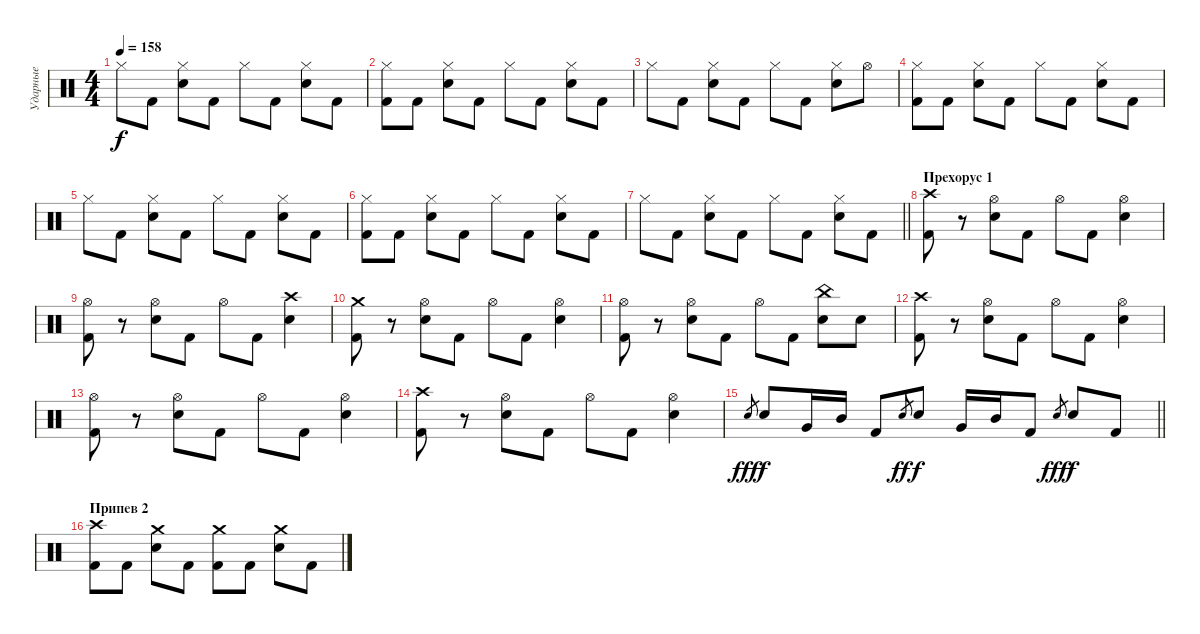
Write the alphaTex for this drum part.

\track ("Ударные" "Ударные") {instrument percussion}
\staff {score}
\articulation defaults
\ts (4 4)
\tempo 158
\clef neutral
\ks c "Hi-Hat (closed)".8{dy f} "Kick (hit) 2".8
("Hi-Hat (closed)" "Electric Snare (hit)").8 "Kick (hit) 2".8 "Hi-Hat (closed)".8 "Kick (hit) 2".8 ("Hi-Hat (closed)" "Electric Snare (hit)").8 "Kick (hit) 2".8 |
("Hi-Hat (closed)" "Kick (hit) 2").8 "Kick (hit) 2".8 ("Hi-Hat (closed)" "Electric Snare (hit)").8 "Kick (hit) 2".8 "Hi-Hat (closed)".8 "Kick (hit) 2".8 ("Hi-Hat (closed)" "Electric Snare (hit)").8 "Kick (hit) 2".8 |
"Hi-Hat (closed)".8 "Kick (hit) 2".8 ("Hi-Hat (closed)" "Electric Snare (hit)").8 "Kick (hit) 2".8 "Hi-Hat (closed)".8 "Kick (hit) 2".8 ("Hi-Hat (closed)" "Electric Snare (hit)").8 "Hi-Hat (open)".8 |
("Hi-Hat (closed)" "Kick (hit) 2").8 "Kick (hit) 2".8 ("Hi-Hat (closed)" "Electric Snare (hit)").8 "Kick (hit) 2".8 "Hi-Hat (closed)".8 "Kick (hit) 2".8 ("Hi-Hat (closed)" "Electric Snare (hit)").8 "Kick (hit) 2".8 |
"Hi-Hat (closed)".8 "Kick (hit) 2".8 ("Hi-Hat (closed)" "Electric Snare (hit)").8 "Kick (hit) 2".8 "Hi-Hat (closed)".8 "Kick (hit) 2".8 ("Hi-Hat (closed)" "Electric Snare (hit)").8 "Kick (hit) 2".8 |
("Hi-Hat (closed)" "Kick (hit) 2").8 "Kick (hit) 2".8 ("Hi-Hat (closed)" "Electric Snare (hit)").8 "Kick (hit) 2".8 "Hi-Hat (closed)".8 "Kick (hit) 2".8 ("Hi-Hat (closed)" "Electric Snare (hit)").8 "Kick (hit) 2".8 |
\barLineRight lightlight "Hi-Hat (closed)".8 "Kick (hit) 2".8
("Hi-Hat (closed)" "Electric Snare (hit)").8 "Kick (hit) 2".8 "Hi-Hat (closed)".8 "Kick (hit) 2".8 ("Hi-Hat (closed)" "Electric Snare (hit)").8 "Kick (hit) 2".8 |
\section ("" "Прехорус 1")
("Crash high (hit)" "Kick (hit) 2").8 r.8 ("Hi-Hat (open)" "Electric Snare (hit)").8 "Kick (hit) 2".8 "Hi-Hat (open)".8 "Kick (hit) 2".8 ("Hi-Hat (open)" "Electric Snare (hit)").4 |
("Hi-Hat (open)" "Kick (hit) 2").8 r.8 ("Hi-Hat (open)" "Electric Snare (hit)").8 "Kick (hit) 2".8 "Hi-Hat (open)".8 "Kick (hit) 2".8 ("Crash high (hit)" "Electric Snare (hit)").4 |
("Crash medium (hit)" "Kick (hit) 2").8 r.8 ("Hi-Hat (open)" "Electric Snare (hit)").8 "Kick (hit) 2".8 "Hi-Hat (open)".8 "Kick (hit) 2".8 ("Hi-Hat (open)" "Electric Snare (hit)").4 |
("Hi-Hat (open)" "Kick (hit) 2").8 r.8 ("Hi-Hat (open)" "Electric Snare (hit)").8 "Kick (hit) 2".8 "Hi-Hat (open)".8 "Kick (hit) 2".8 ("China (hit)" "Electric Snare (hit)").8 "Electric Snare (hit)".8 |
("Crash high (hit)" "Kick (hit) 2").8 r.8 ("Hi-Hat (open)" "Electric Snare (hit)").8 "Kick (hit) 2".8 "Hi-Hat (open)".8 "Kick (hit) 2".8 ("Hi-Hat (open)" "Electric Snare (hit)").4 |
("Hi-Hat (open)" "Kick (hit) 2").8 r.8 ("Hi-Hat (open)" "Electric Snare (hit)").8 "Kick (hit) 2".8 "Hi-Hat (open)".8 "Kick (hit) 2".8 ("Hi-Hat (open)" "Electric Snare (hit)").4 |
("Crash high (hit)" "Kick (hit) 2").8 r.8 ("Hi-Hat (open)" "Electric Snare (hit)").8 "Kick (hit) 2".8 "Hi-Hat (open)".8 "Kick (hit) 2".8 ("Hi-Hat (open)" "Electric Snare (hit)").4 |
\barLineRight lightlight "Electric Snare (hit)".8{gr dy fff} "Electric Snare (hit)".8{dy f} "Very Low Tom (hit)".16 "Mid Tom (hit)".16 "Kick (hit) 2".8 "Electric Snare (hit)".8{gr dy ff} "Electric Snare (hit)".8{dy f} "Very Low Tom (hit)".16 "Mid Tom (hit)".16 "Kick (hit) 2".8 "Electric Snare (hit)".8{gr dy fff} "Electric Snare (hit)".8{dy f} "Kick (hit) 2".8
|
\section ("" "Припев 2")
("Crash high (hit)" "Kick (hit) 2").8 "Kick (hit) 2".8 ("Crash medium (hit)" "Electric Snare (hit)").8 "Kick (hit) 2".8 ("Crash medium (hit)" "Kick (hit) 2").8 "Kick (hit) 2".8 ("Crash medium (hit)" "Electric Snare (hit)").8 "Kick (hit) 2".8
